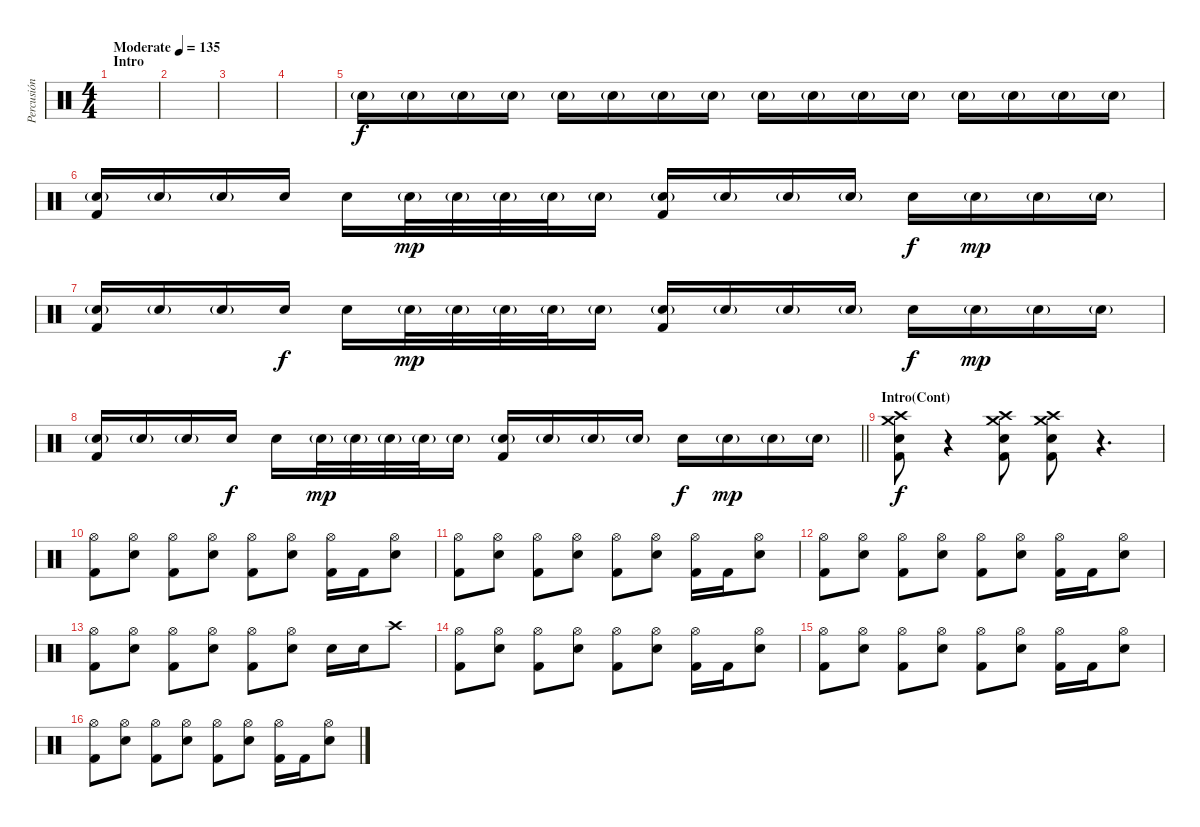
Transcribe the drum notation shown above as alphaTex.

\track ("Percusión" "Percusión") {instrument percussion}
\staff {score}
\articulation defaults
\ts (4 4)
\section ("" "Intro")
\tempo (135 "Moderate")
\clef neutral
\ks c
|
|
|
|
"Snare (hit) 2"{g}.16{volume 13} "Snare (hit) 2"{g}.16 "Snare (hit) 2"{g}.16 "Snare (hit) 2"{g}.16 "Snare (hit) 2"{g}.16 "Snare (hit) 2"{g}.16 "Snare (hit) 2"{g}.16 "Snare (hit) 2"{g}.16 "Snare (hit) 2"{g}.16 "Snare (hit) 2"{g}.16 "Snare (hit) 2"{g}.16 "Snare (hit) 2"{g}.16 "Snare (hit) 2"{g}.16 "Snare (hit) 2"{g}.16 "Snare (hit) 2"{g}.16 "Snare (hit) 2"{g}.16 |
("Snare (hit) 2"{g} "Kick (hit) 2").16 "Snare (hit) 2"{g}.16 "Snare (hit) 2"{g}.16 "Electric Snare (hit)".16{dy f} "Electric Snare (hit)".16 "Snare (hit) 2"{g}.32{dy mp} "Snare (hit) 2"{g}.32 "Snare (hit) 2"{g}.32 "Snare (hit) 2"{g}.32 "Snare (hit) 2"{g}.16 ("Snare (hit) 2"{g} "Kick (hit) 2").16 "Snare (hit) 2"{g}.16 "Snare (hit) 2"{g}.16 "Snare (hit) 2"{g}.16 "Electric Snare (hit)".16{dy f} "Snare (hit) 2"{g}.16{dy mp} "Snare (hit) 2"{g}.16 "Snare (hit) 2"{g}.16 |
("Snare (hit) 2"{g} "Kick (hit) 2").16 "Snare (hit) 2"{g}.16 "Snare (hit) 2"{g}.16 "Electric Snare (hit)".16{dy f} "Electric Snare (hit)".16 "Snare (hit) 2"{g}.32{dy mp} "Snare (hit) 2"{g}.32 "Snare (hit) 2"{g}.32 "Snare (hit) 2"{g}.32 "Snare (hit) 2"{g}.16 ("Snare (hit) 2"{g} "Kick (hit) 2").16 "Snare (hit) 2"{g}.16 "Snare (hit) 2"{g}.16 "Snare (hit) 2"{g}.16 "Electric Snare (hit)".16{dy f} "Snare (hit) 2"{g}.16{dy mp} "Snare (hit) 2"{g}.16 "Snare (hit) 2"{g}.16 |
\barLineRight lightlight
("Snare (hit) 2"{g} "Kick (hit) 2").16 "Snare (hit) 2"{g}.16 "Snare (hit) 2"{g}.16 "Electric Snare (hit)".16{dy f} "Electric Snare (hit)".16 "Snare (hit) 2"{g}.32{dy mp} "Snare (hit) 2"{g}.32 "Snare (hit) 2"{g}.32 "Snare (hit) 2"{g}.32 "Snare (hit) 2"{g}.16 ("Snare (hit) 2"{g} "Kick (hit) 2").16 "Snare (hit) 2"{g}.16 "Snare (hit) 2"{g}.16 "Snare (hit) 2"{g}.16 "Electric Snare (hit)".16{dy f} "Snare (hit) 2"{g}.16{dy mp} "Snare (hit) 2"{g}.16 "Snare (hit) 2"{g}.16 |
\section ("" "Intro(Cont)")
("Crash medium (hit)" "Crash high (hit)" "Electric Snare (hit)" "Kick (hit) 2").8{dy f} r.4 ("Crash medium (hit)" "Crash high (hit)" "Electric Snare (hit)" "Kick (hit) 2").8 ("Crash medium (hit)" "Crash high (hit)" "Electric Snare (hit)" "Kick (hit) 2").8 r.4{d} |
("Hi-Hat (open)" "Kick (hit) 2").8 ("Hi-Hat (open)" "Electric Snare (hit)").8 ("Hi-Hat (open)" "Kick (hit) 2").8 ("Hi-Hat (open)" "Electric Snare (hit)").8 ("Hi-Hat (open)" "Kick (hit) 2").8 ("Hi-Hat (open)" "Electric Snare (hit)").8 ("Hi-Hat (open)" "Kick (hit) 2").16 "Kick (hit) 2".16 ("Hi-Hat (open)" "Electric Snare (hit)").8 |
("Hi-Hat (open)" "Kick (hit) 2").8 ("Hi-Hat (open)" "Electric Snare (hit)").8 ("Hi-Hat (open)" "Kick (hit) 2").8 ("Hi-Hat (open)" "Electric Snare (hit)").8 ("Hi-Hat (open)" "Kick (hit) 2").8 ("Hi-Hat (open)" "Electric Snare (hit)").8 ("Hi-Hat (open)" "Kick (hit) 2").16 "Kick (hit) 2".16 ("Hi-Hat (open)" "Electric Snare (hit)").8 |
("Hi-Hat (open)" "Kick (hit) 2").8 ("Hi-Hat (open)" "Snare (hit) 2").8 ("Hi-Hat (open)" "Kick (hit) 2").8 ("Hi-Hat (open)" "Electric Snare (hit)").8 ("Hi-Hat (open)" "Kick (hit) 2").8 ("Hi-Hat (open)" "Electric Snare (hit)").8 ("Hi-Hat (open)" "Kick (hit) 2").16 "Kick (hit) 2".16 ("Hi-Hat (open)" "Electric Snare (hit)").8 |
("Hi-Hat (open)" "Kick (hit) 2").8 ("Hi-Hat (open)" "Electric Snare (hit)").8 ("Hi-Hat (open)" "Kick (hit) 2").8 ("Hi-Hat (open)" "Electric Snare (hit)").8 ("Hi-Hat (open)" "Kick (hit) 2").8 ("Hi-Hat (open)" "Electric Snare (hit)").8 "Electric Snare (hit)".16 "Electric Snare (hit)".16 "Crash high (hit)".8 |
("Hi-Hat (open)" "Kick (hit) 2").8 ("Hi-Hat (open)" "Electric Snare (hit)").8 ("Hi-Hat (open)" "Kick (hit) 2").8 ("Hi-Hat (open)" "Electric Snare (hit)").8 ("Hi-Hat (open)" "Kick (hit) 2").8 ("Hi-Hat (open)" "Electric Snare (hit)").8 ("Hi-Hat (open)" "Kick (hit) 2").16 "Kick (hit) 2".16 ("Hi-Hat (open)" "Electric Snare (hit)").8 |
("Hi-Hat (open)" "Kick (hit) 2").8 ("Hi-Hat (open)" "Electric Snare (hit)").8 ("Hi-Hat (open)" "Kick (hit) 2").8 ("Hi-Hat (open)" "Electric Snare (hit)").8 ("Hi-Hat (open)" "Kick (hit) 2").8 ("Hi-Hat (open)" "Electric Snare (hit)").8 ("Hi-Hat (open)" "Kick (hit) 2").16 "Kick (hit) 2".16 ("Hi-Hat (open)" "Electric Snare (hit)").8 |
("Hi-Hat (open)" "Kick (hit) 2").8 ("Hi-Hat (open)" "Electric Snare (hit)").8 ("Hi-Hat (open)" "Kick (hit) 2").8 ("Hi-Hat (open)" "Electric Snare (hit)").8 ("Hi-Hat (open)" "Kick (hit) 2").8 ("Hi-Hat (open)" "Electric Snare (hit)").8 ("Hi-Hat (open)" "Kick (hit) 2").16 "Kick (hit) 2".16 ("Hi-Hat (open)" "Electric Snare (hit)").8
